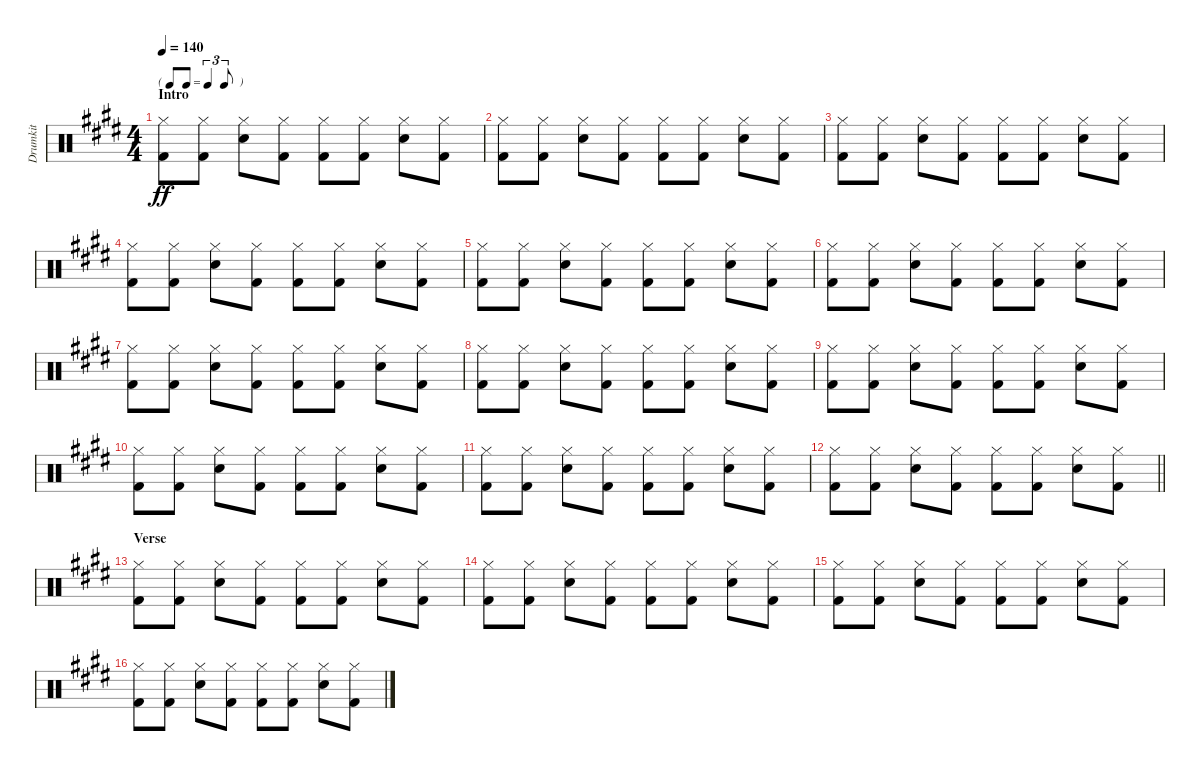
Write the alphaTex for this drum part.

\track ("Drumkit" "Drumkit") {instrument percussion}
\staff {score}
\articulation defaults
\ts (4 4)
\tf triplet8th
\section ("" "Intro")
\tempo 140
\clef neutral
\ks e
("Hi-Hat (closed)" "Kick (hit) 2").8{dy ff} ("Hi-Hat (closed)" "Kick (hit) 2").8 ("Hi-Hat (closed)" "Snare (hit) 2").8 ("Hi-Hat (closed)" "Kick (hit) 2").8 ("Hi-Hat (closed)" "Kick (hit) 2").8 ("Hi-Hat (closed)" "Kick (hit) 2").8 ("Hi-Hat (closed)" "Snare (hit) 2").8 ("Hi-Hat (closed)" "Kick (hit) 2").8 |
("Hi-Hat (closed)" "Kick (hit) 2").8 ("Hi-Hat (closed)" "Kick (hit) 2").8 ("Hi-Hat (closed)" "Snare (hit) 2").8 ("Hi-Hat (closed)" "Kick (hit) 2").8 ("Hi-Hat (closed)" "Kick (hit) 2").8 ("Hi-Hat (closed)" "Kick (hit) 2").8 ("Hi-Hat (closed)" "Snare (hit) 2").8 ("Hi-Hat (closed)" "Kick (hit) 2").8 |
("Hi-Hat (closed)" "Kick (hit) 2").8 ("Hi-Hat (closed)" "Kick (hit) 2").8 ("Hi-Hat (closed)" "Snare (hit) 2").8 ("Hi-Hat (closed)" "Kick (hit) 2").8 ("Hi-Hat (closed)" "Kick (hit) 2").8 ("Hi-Hat (closed)" "Kick (hit) 2").8 ("Hi-Hat (closed)" "Snare (hit) 2").8 ("Hi-Hat (closed)" "Kick (hit) 2").8 |
("Hi-Hat (closed)" "Kick (hit) 2").8 ("Hi-Hat (closed)" "Kick (hit) 2").8 ("Hi-Hat (closed)" "Snare (hit) 2").8 ("Hi-Hat (closed)" "Kick (hit) 2").8 ("Hi-Hat (closed)" "Kick (hit) 2").8 ("Hi-Hat (closed)" "Kick (hit) 2").8 ("Hi-Hat (closed)" "Snare (hit) 2").8 ("Hi-Hat (closed)" "Kick (hit) 2").8 |
("Hi-Hat (closed)" "Kick (hit) 2").8 ("Hi-Hat (closed)" "Kick (hit) 2").8 ("Hi-Hat (closed)" "Snare (hit) 2").8 ("Hi-Hat (closed)" "Kick (hit) 2").8 ("Hi-Hat (closed)" "Kick (hit) 2").8 ("Hi-Hat (closed)" "Kick (hit) 2").8 ("Hi-Hat (closed)" "Snare (hit) 2").8 ("Hi-Hat (closed)" "Kick (hit) 2").8 |
("Hi-Hat (closed)" "Kick (hit) 2").8 ("Hi-Hat (closed)" "Kick (hit) 2").8 ("Hi-Hat (closed)" "Snare (hit) 2").8 ("Hi-Hat (closed)" "Kick (hit) 2").8 ("Hi-Hat (closed)" "Kick (hit) 2").8 ("Hi-Hat (closed)" "Kick (hit) 2").8 ("Hi-Hat (closed)" "Snare (hit) 2").8 ("Hi-Hat (closed)" "Kick (hit) 2").8 |
("Hi-Hat (closed)" "Kick (hit) 2").8 ("Hi-Hat (closed)" "Kick (hit) 2").8 ("Hi-Hat (closed)" "Snare (hit) 2").8 ("Hi-Hat (closed)" "Kick (hit) 2").8 ("Hi-Hat (closed)" "Kick (hit) 2").8 ("Hi-Hat (closed)" "Kick (hit) 2").8 ("Hi-Hat (closed)" "Snare (hit) 2").8 ("Hi-Hat (closed)" "Kick (hit) 2").8 |
("Hi-Hat (closed)" "Kick (hit) 2").8 ("Hi-Hat (closed)" "Kick (hit) 2").8 ("Hi-Hat (closed)" "Snare (hit) 2").8 ("Hi-Hat (closed)" "Kick (hit) 2").8 ("Hi-Hat (closed)" "Kick (hit) 2").8 ("Hi-Hat (closed)" "Kick (hit) 2").8 ("Hi-Hat (closed)" "Snare (hit) 2").8 ("Hi-Hat (closed)" "Kick (hit) 2").8 |
("Hi-Hat (closed)" "Kick (hit) 2").8 ("Hi-Hat (closed)" "Kick (hit) 2").8 ("Hi-Hat (closed)" "Snare (hit) 2").8 ("Hi-Hat (closed)" "Kick (hit) 2").8 ("Hi-Hat (closed)" "Kick (hit) 2").8 ("Hi-Hat (closed)" "Kick (hit) 2").8 ("Hi-Hat (closed)" "Snare (hit) 2").8 ("Hi-Hat (closed)" "Kick (hit) 2").8 |
("Hi-Hat (closed)" "Kick (hit) 2").8 ("Hi-Hat (closed)" "Kick (hit) 2").8 ("Hi-Hat (closed)" "Snare (hit) 2").8 ("Hi-Hat (closed)" "Kick (hit) 2").8 ("Hi-Hat (closed)" "Kick (hit) 2").8 ("Hi-Hat (closed)" "Kick (hit) 2").8 ("Hi-Hat (closed)" "Snare (hit) 2").8 ("Hi-Hat (closed)" "Kick (hit) 2").8 |
("Hi-Hat (closed)" "Kick (hit) 2").8 ("Hi-Hat (closed)" "Kick (hit) 2").8 ("Hi-Hat (closed)" "Snare (hit) 2").8 ("Hi-Hat (closed)" "Kick (hit) 2").8 ("Hi-Hat (closed)" "Kick (hit) 2").8 ("Hi-Hat (closed)" "Kick (hit) 2").8 ("Hi-Hat (closed)" "Snare (hit) 2").8 ("Hi-Hat (closed)" "Kick (hit) 2").8 |
\barLineRight lightlight
("Hi-Hat (closed)" "Kick (hit) 2").8 ("Hi-Hat (closed)" "Kick (hit) 2").8 ("Hi-Hat (closed)" "Snare (hit) 2").8 ("Hi-Hat (closed)" "Kick (hit) 2").8 ("Hi-Hat (closed)" "Kick (hit) 2").8 ("Hi-Hat (closed)" "Kick (hit) 2").8 ("Hi-Hat (closed)" "Snare (hit) 2").8 ("Hi-Hat (closed)" "Kick (hit) 2").8 |
\section ("" "Verse")
("Hi-Hat (closed)" "Kick (hit) 2").8 ("Hi-Hat (closed)" "Kick (hit) 2").8 ("Hi-Hat (closed)" "Snare (hit) 2").8 ("Hi-Hat (closed)" "Kick (hit) 2").8 ("Hi-Hat (closed)" "Kick (hit) 2").8 ("Hi-Hat (closed)" "Kick (hit) 2").8 ("Hi-Hat (closed)" "Snare (hit) 2").8 ("Hi-Hat (closed)" "Kick (hit) 2").8 |
("Hi-Hat (closed)" "Kick (hit) 2").8 ("Hi-Hat (closed)" "Kick (hit) 2").8 ("Hi-Hat (closed)" "Snare (hit) 2").8 ("Hi-Hat (closed)" "Kick (hit) 2").8 ("Hi-Hat (closed)" "Kick (hit) 2").8 ("Hi-Hat (closed)" "Kick (hit) 2").8 ("Hi-Hat (closed)" "Snare (hit) 2").8 ("Hi-Hat (closed)" "Kick (hit) 2").8 |
("Hi-Hat (closed)" "Kick (hit) 2").8 ("Hi-Hat (closed)" "Kick (hit) 2").8 ("Hi-Hat (closed)" "Snare (hit) 2").8 ("Hi-Hat (closed)" "Kick (hit) 2").8 ("Hi-Hat (closed)" "Kick (hit) 2").8 ("Hi-Hat (closed)" "Kick (hit) 2").8 ("Hi-Hat (closed)" "Snare (hit) 2").8 ("Hi-Hat (closed)" "Kick (hit) 2").8 |
("Hi-Hat (closed)" "Kick (hit) 2").8 ("Hi-Hat (closed)" "Kick (hit) 2").8 ("Hi-Hat (closed)" "Snare (hit) 2").8 ("Hi-Hat (closed)" "Kick (hit) 2").8 ("Hi-Hat (closed)" "Kick (hit) 2").8 ("Hi-Hat (closed)" "Kick (hit) 2").8 ("Hi-Hat (closed)" "Snare (hit) 2").8 ("Hi-Hat (closed)" "Kick (hit) 2").8
